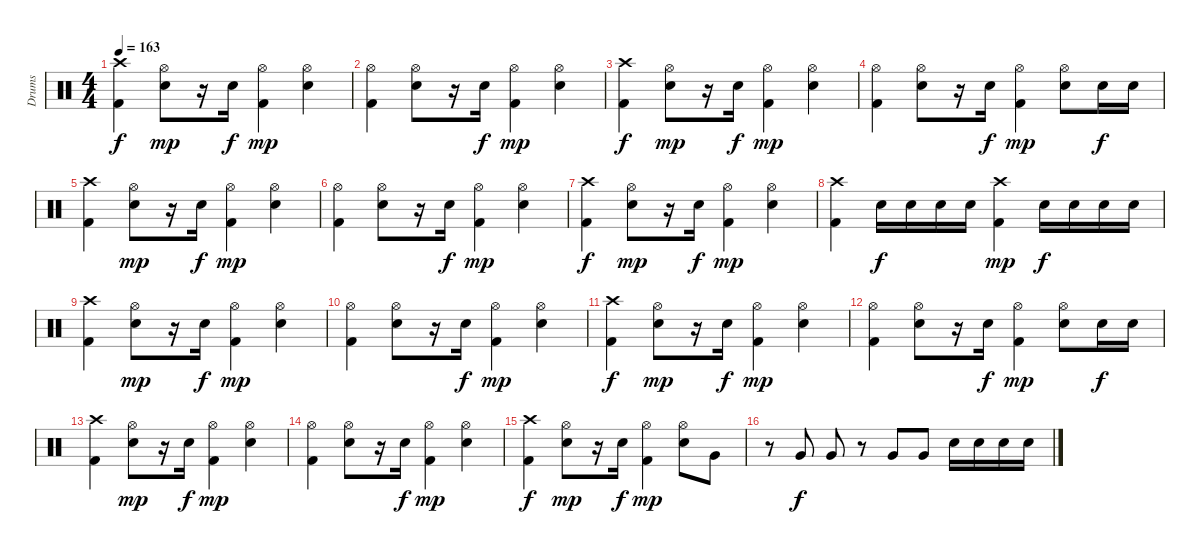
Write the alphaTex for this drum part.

\track ("Drums" "Drums") {instrument percussion}
\staff {score}
\articulation defaults
\ts (4 4)
\tempo 163
\clef neutral
\ks c
("Crash high (hit)" "Kick (hit) 2").4{dy f} ("Hi-Hat (open)" "Snare (hit) 2").8{dy mp} r.16 "Snare (hit) 2".16{dy f} ("Hi-Hat (open)" "Kick (hit) 2").4{dy mp} ("Hi-Hat (open)" "Snare (hit) 2").4 |
("Hi-Hat (open)" "Kick (hit) 2").4 ("Hi-Hat (open)" "Snare (hit) 2").8 r.16 "Snare (hit) 2".16{dy f} ("Hi-Hat (open)" "Kick (hit) 2").4{dy mp} ("Hi-Hat (open)" "Snare (hit) 2").4 |
("Crash high (hit)" "Kick (hit) 2").4{dy f} ("Hi-Hat (open)" "Snare (hit) 2").8{dy mp} r.16 "Snare (hit) 2".16{dy f} ("Hi-Hat (open)" "Kick (hit) 2").4{dy mp} ("Hi-Hat (open)" "Snare (hit) 2").4 |
("Hi-Hat (open)" "Kick (hit) 2").4 ("Hi-Hat (open)" "Snare (hit) 2").8 r.16 "Snare (hit) 2".16{dy f} ("Hi-Hat (open)" "Kick (hit) 2").4{dy mp} ("Hi-Hat (open)" "Snare (hit) 2").8 "Snare (hit) 2".16{dy f} "Snare (hit) 2".16 |
("Crash high (hit)" "Kick (hit) 2").4 ("Hi-Hat (open)" "Snare (hit) 2").8{dy mp} r.16 "Snare (hit) 2".16{dy f} ("Hi-Hat (open)" "Kick (hit) 2").4{dy mp} ("Hi-Hat (open)" "Snare (hit) 2").4 |
("Hi-Hat (open)" "Kick (hit) 2").4 ("Hi-Hat (open)" "Snare (hit) 2").8 r.16 "Snare (hit) 2".16{dy f} ("Hi-Hat (open)" "Kick (hit) 2").4{dy mp} ("Hi-Hat (open)" "Snare (hit) 2").4 |
("Crash high (hit)" "Kick (hit) 2").4{dy f} ("Hi-Hat (open)" "Snare (hit) 2").8{dy mp} r.16 "Snare (hit) 2".16{dy f} ("Hi-Hat (open)" "Kick (hit) 2").4{dy mp} ("Hi-Hat (open)" "Snare (hit) 2").4 |
("Crash high (hit)" "Kick (hit) 2").4 "Snare (hit) 2".16{dy f} "Snare (hit) 2".16 "Snare (hit) 2".16 "Snare (hit) 2".16 ("Crash high (hit)" "Kick (hit) 2").4{dy mp} "Snare (hit) 2".16{dy f} "Snare (hit) 2".16 "Snare (hit) 2".16 "Snare (hit) 2".16 |
("Crash high (hit)" "Kick (hit) 2").4 ("Hi-Hat (open)" "Snare (hit) 2").8{dy mp} r.16 "Snare (hit) 2".16{dy f} ("Hi-Hat (open)" "Kick (hit) 2").4{dy mp} ("Hi-Hat (open)" "Snare (hit) 2").4 |
("Hi-Hat (open)" "Kick (hit) 2").4 ("Hi-Hat (open)" "Snare (hit) 2").8 r.16 "Snare (hit) 2".16{dy f} ("Hi-Hat (open)" "Kick (hit) 2").4{dy mp} ("Hi-Hat (open)" "Snare (hit) 2").4 |
("Crash high (hit)" "Kick (hit) 2").4{dy f} ("Hi-Hat (open)" "Snare (hit) 2").8{dy mp} r.16 "Snare (hit) 2".16{dy f} ("Hi-Hat (open)" "Kick (hit) 2").4{dy mp} ("Hi-Hat (open)" "Snare (hit) 2").4 |
("Hi-Hat (open)" "Kick (hit) 2").4 ("Hi-Hat (open)" "Snare (hit) 2").8 r.16 "Snare (hit) 2".16{dy f} ("Hi-Hat (open)" "Kick (hit) 2").4{dy mp} ("Hi-Hat (open)" "Snare (hit) 2").8 "Snare (hit) 2".16{dy f} "Snare (hit) 2".16 |
("Crash high (hit)" "Kick (hit) 2").4 ("Hi-Hat (open)" "Snare (hit) 2").8{dy mp} r.16 "Snare (hit) 2".16{dy f} ("Hi-Hat (open)" "Kick (hit) 2").4{dy mp} ("Hi-Hat (open)" "Snare (hit) 2").4 |
("Hi-Hat (open)" "Kick (hit) 2").4 ("Hi-Hat (open)" "Snare (hit) 2").8 r.16 "Snare (hit) 2".16{dy f} ("Hi-Hat (open)" "Kick (hit) 2").4{dy mp} ("Hi-Hat (open)" "Snare (hit) 2").4 |
("Crash high (hit)" "Kick (hit) 2").4{dy f} ("Hi-Hat (open)" "Snare (hit) 2").8{dy mp} r.16 "Snare (hit) 2".16{dy f} ("Hi-Hat (open)" "Kick (hit) 2").4{dy mp} ("Hi-Hat (open)" "Snare (hit) 2").8 "Very Low Tom (hit)".8 |
r.8 "Very Low Tom (hit)".8{dy f} "Very Low Tom (hit)".8 r.8 "Very Low Tom (hit)".8 "Very Low Tom (hit)".8 "Snare (hit) 2".16 "Snare (hit) 2".16 "Snare (hit) 2".16 "Snare (hit) 2".16
